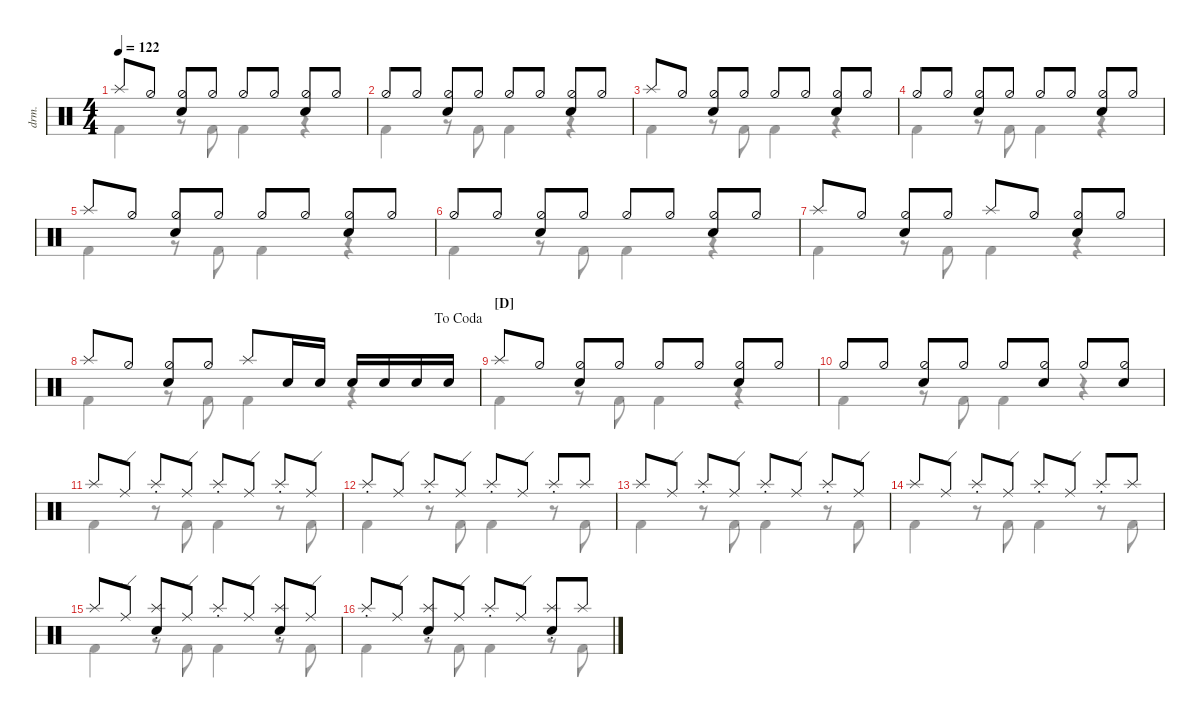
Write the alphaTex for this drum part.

\defaultSystemsLayout 4
\hideDynamics
\bracketExtendMode nobrackets
\track ("Drumkit" "drm.") {defaultSystemsLayout 4 instrument percussion}
\staff {score}
\articulation defaults
\voice
\ts (4 4)
\tempo 122
\clef neutral
\ks c "Splash (hit)".8{dy mf beam Up} "Hi-Hat (half)".8{beam Up}
("Hi-Hat (half)" "Snare (hit) 2").8{beam Up} "Hi-Hat (half)".8{beam Up} "Hi-Hat (half)".8{beam Up} "Hi-Hat (half)".8{beam Up} ("Hi-Hat (half)" "Snare (hit) 2").8{beam Up} "Hi-Hat (half)".8{beam Up} |
"Hi-Hat (half)".8{beam Up} "Hi-Hat (half)".8{beam Up} ("Hi-Hat (half)" "Snare (hit) 2").8{beam Up} "Hi-Hat (half)".8{beam Up} "Hi-Hat (half)".8{beam Up} "Hi-Hat (half)".8{beam Up} ("Hi-Hat (half)" "Snare (hit) 2").8{beam Up} "Hi-Hat (half)".8{beam Up} |
"Splash (hit)".8{beam Up} "Hi-Hat (half)".8{beam Up} ("Hi-Hat (half)" "Snare (hit) 2").8{beam Up} "Hi-Hat (half)".8{beam Up} "Hi-Hat (half)".8{beam Up} "Hi-Hat (half)".8{beam Up} ("Hi-Hat (half)" "Snare (hit) 2").8{beam Up} "Hi-Hat (half)".8{beam Up} |
"Hi-Hat (half)".8{beam Up} "Hi-Hat (half)".8{beam Up} ("Hi-Hat (half)" "Snare (hit) 2").8{beam Up} "Hi-Hat (half)".8{beam Up} "Hi-Hat (half)".8{beam Up} "Hi-Hat (half)".8{beam Up} ("Hi-Hat (half)" "Snare (hit) 2").8{beam Up} "Hi-Hat (half)".8{beam Up} |
"Splash (hit)".8{beam Up} "Hi-Hat (half)".8{beam Up} ("Hi-Hat (half)" "Snare (hit) 2").8{beam Up} "Hi-Hat (half)".8{beam Up} "Hi-Hat (half)".8{beam Up} "Hi-Hat (half)".8{beam Up} ("Hi-Hat (half)" "Snare (hit) 2").8{beam Up} "Hi-Hat (half)".8{beam Up} |
"Hi-Hat (half)".8{beam Up} "Hi-Hat (half)".8{beam Up} ("Hi-Hat (half)" "Snare (hit) 2").8{beam Up} "Hi-Hat (half)".8{beam Up} "Hi-Hat (half)".8{beam Up} "Hi-Hat (half)".8{beam Up} ("Hi-Hat (half)" "Snare (hit) 2").8{beam Up} "Hi-Hat (half)".8{beam Up} |
"Splash (hit)".8{beam Up} "Hi-Hat (half)".8{beam Up} ("Hi-Hat (half)" "Snare (hit) 2").8{beam Up} "Hi-Hat (half)".8{beam Up} "Splash (hit)".8{beam Up} "Hi-Hat (half)".8{beam Up} ("Hi-Hat (half)" "Snare (hit) 2").8{beam Up} "Hi-Hat (half)".8{beam Up} |
\jump dacoda "Splash (hit)".8{beam Up} "Hi-Hat (half)".8{beam Up}
("Hi-Hat (half)" "Snare (hit) 2").8{beam Up} "Hi-Hat (half)".8{beam Up} "Splash (hit)".8{beam Up} "Snare (hit) 2".16{beam Up} "Snare (hit) 2".16{beam Up} "Snare (hit) 2".16{beam Up} "Snare (hit) 2".16{beam Up} "Snare (hit) 2".16{beam Up} "Snare (hit) 2".16{beam Up} |
\section ("D" "")
"Splash (hit)".8{beam Up} "Hi-Hat (half)".8{beam Up} ("Hi-Hat (half)" "Snare (hit) 2").8{beam Up} "Hi-Hat (half)".8{beam Up} "Hi-Hat (half)".8{beam Up} "Hi-Hat (half)".8{beam Up} ("Hi-Hat (half)" "Snare (hit) 2").8{beam Up} "Hi-Hat (half)".8{beam Up} |
"Hi-Hat (half)".8{beam Up} "Hi-Hat (half)".8{beam Up} ("Hi-Hat (half)" "Snare (hit) 2").8{beam Up} "Hi-Hat (half)".8{beam Up} "Hi-Hat (half)".8{beam Up} ("Hi-Hat (half)" "Snare (hit) 2").8{beam Up} "Hi-Hat (half)".8{beam Up} ("Hi-Hat (half)" "Snare (hit) 2").8{beam Up} |
"Splash (hit)".8{beam Up} "Ride (edge)".8{beam Up} "Splash (choke)".8{beam Up} "Ride (edge)".8{beam Up} "Splash (choke)".8{beam Up} "Ride (edge)".8{beam Up} "Splash (choke)".8{beam Up} "Ride (edge)".8{beam Up} |
"Splash (choke)".8{beam Up} "Ride (edge)".8{beam Up} "Splash (choke)".8{beam Up} "Ride (edge)".8{beam Up} "Splash (choke)".8{beam Up} "Ride (edge)".8{beam Up} "Splash (choke)".8{beam Up} "Splash (hit)".8{beam Up} |
"Splash (hit)".8{beam Up} "Ride (edge)".8{beam Up} "Splash (choke)".8{beam Up} "Ride (edge)".8{beam Up} "Splash (choke)".8{beam Up} "Ride (edge)".8{beam Up} "Splash (choke)".8{beam Up} "Ride (edge)".8{beam Up} |
"Splash (hit)".8{beam Up} "Ride (edge)".8{beam Up} "Splash (choke)".8{beam Up} "Ride (edge)".8{beam Up} "Splash (choke)".8{beam Up} "Ride (edge)".8{beam Up} "Splash (choke)".8{beam Up} "Splash (hit)".8{beam Up} |
"Splash (hit)".8{beam Up} "Ride (edge)".8{beam Up} ("Splash (choke)" "Snare (hit) 2").8{beam Up} "Ride (edge)".8{beam Up} "Splash (choke)".8{beam Up} "Ride (edge)".8{beam Up} ("Splash (choke)" "Snare (hit) 2").8{beam Up} "Ride (edge)".8{beam Up} |
"Splash (choke)".8{beam Up} "Ride (edge)".8{beam Up} ("Splash (choke)" "Snare (hit) 2").8{beam Up} "Ride (edge)".8{beam Up} "Splash (choke)".8{beam Up} "Ride (edge)".8{beam Up} ("Splash (choke)" "Snare (hit) 2").8{beam Up} "Splash (hit)".8{beam Up}
\voice
\clef neutral
\ottava regular
\simile none
\ks c
|
|
|
|
|
|
|
|
|
|
|
|
|
|
|
\voice
\clef neutral
\ottava regular
\simile none
\ks c "Kick (hit) 2".4{dy mf beam Down}
r.8{beam Down} "Kick (hit) 2".8{beam Down} "Kick (hit) 2".4{beam Down} r.4{beam Down} |
"Kick (hit) 2".4{beam Down} r.8{beam Down} "Kick (hit) 2".8{beam Down} "Kick (hit) 2".4{beam Down} r.4{beam Down} |
"Kick (hit) 2".4{beam Down} r.8{beam Down} "Kick (hit) 2".8{beam Down} "Kick (hit) 2".4{beam Down} r.4{beam Down} |
"Kick (hit) 2".4{beam Down} r.8{beam Down} "Kick (hit) 2".8{beam Down} "Kick (hit) 2".4{beam Down} r.4{beam Down} |
"Kick (hit) 2".4{beam Down} r.8{beam Down} "Kick (hit) 2".8{beam Down} "Kick (hit) 2".4{beam Down} r.4{beam Down} |
"Kick (hit) 2".4{beam Down} r.8{beam Down} "Kick (hit) 2".8{beam Down} "Kick (hit) 2".4{beam Down} r.4{beam Down} |
"Kick (hit) 2".4{beam Down} r.8{beam Down} "Kick (hit) 2".8{beam Down} "Kick (hit) 2".4{beam Down} r.4{beam Down} |
"Kick (hit) 2".4{beam Down} r.8{beam Down} "Kick (hit) 2".8{beam Down} "Kick (hit) 2".4{beam Down} r.4{beam Down} |
"Kick (hit) 2".4{beam Down} r.8{beam Down} "Kick (hit) 2".8{beam Down} "Kick (hit) 2".4{beam Down} r.4{beam Down} |
"Kick (hit) 2".4{beam Down} r.8{beam Down} "Kick (hit) 2".8{beam Down} "Kick (hit) 2".4{beam Down} r.4{beam Down} |
"Kick (hit) 2".4{beam Down} r.8{beam Down} "Kick (hit) 2".8{beam Down} "Kick (hit) 2".4{beam Down} r.8{beam Down} "Kick (hit) 2".8{beam Down} |
"Kick (hit) 2".4{beam Down} r.8{beam Down} "Kick (hit) 2".8{beam Down} "Kick (hit) 2".4{beam Down} r.8{beam Down} "Kick (hit) 2".8{beam Down} |
"Kick (hit) 2".4{beam Down} r.8{beam Down} "Kick (hit) 2".8{beam Down} "Kick (hit) 2".4{beam Down} r.8{beam Down} "Kick (hit) 2".8{beam Down} |
"Kick (hit) 2".4{beam Down} r.8{beam Down} "Kick (hit) 2".8{beam Down} "Kick (hit) 2".4{beam Down} r.8{beam Down} "Kick (hit) 2".8{beam Down} |
"Kick (hit) 2".4{beam Down} r.8{beam Down} "Kick (hit) 2".8{beam Down} "Kick (hit) 2".4{beam Down} r.8{beam Down} "Kick (hit) 2".8{beam Down} |
"Kick (hit) 2".4{beam Down} r.8{beam Down} "Kick (hit) 2".8{beam Down} "Kick (hit) 2".4{beam Down} r.8{beam Down} "Kick (hit) 2".8{beam Down}
